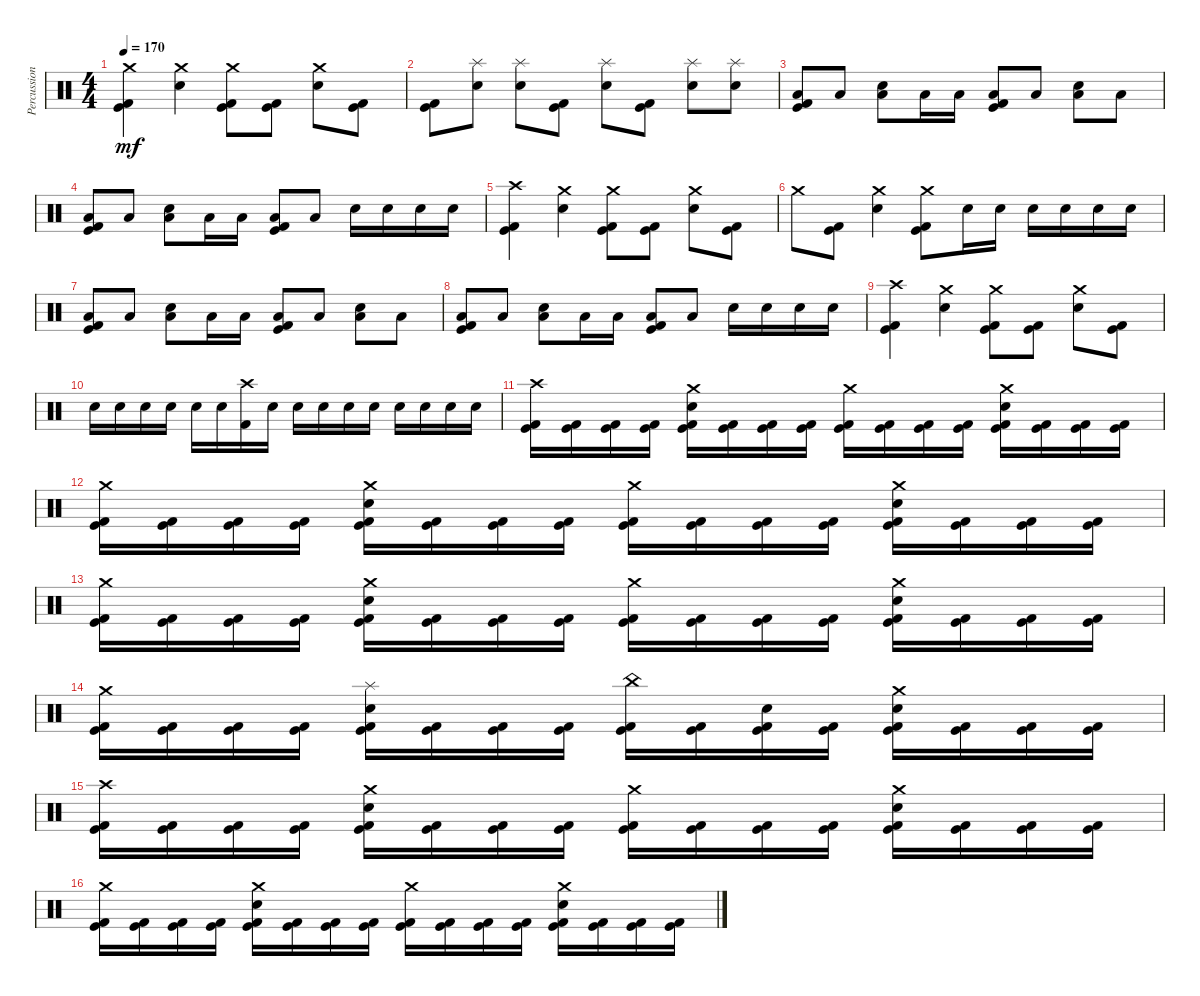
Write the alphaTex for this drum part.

\track ("Percussions" "Percussion") {instrument percussion}
\staff {score}
\articulation defaults
\ts (4 4)
\tempo 170
\clef neutral
\ks c
("Crash medium (hit)" "Kick (hit)" "Kick (hit) 2").4{dy mf} ("Crash medium (hit)" "Electric Snare (hit)").4 ("Crash medium (hit)" "Kick (hit)" "Kick (hit) 2").8 ("Kick (hit)" "Kick (hit) 2").8 ("Crash medium (hit)" "Electric Snare (hit)").8 ("Kick (hit)" "Kick (hit) 2").8 |
("Kick (hit)" "Kick (hit) 2").8 ("Splash (hit)" "Electric Snare (hit)").8 ("Splash (hit)" "Electric Snare (hit)").8 ("Kick (hit)" "Kick (hit) 2").8 ("Splash (hit)" "Electric Snare (hit)").8 ("Kick (hit)" "Kick (hit) 2").8 ("Splash (hit)" "Electric Snare (hit)").8 ("Splash (hit)" "Electric Snare (hit)").8 |
("Low Floor Tom (hit)" "Kick (hit)" "Kick (hit) 2").8 "Low Floor Tom (hit)".8 ("Low Floor Tom (hit)" "Electric Snare (hit)").8 "Low Floor Tom (hit)".16 "Low Floor Tom (hit)".16 ("Low Floor Tom (hit)" "Kick (hit)" "Kick (hit) 2").8 "Low Floor Tom (hit)".8 ("Low Floor Tom (hit)" "Electric Snare (hit)").8 "Low Floor Tom (hit)".8 |
("Low Floor Tom (hit)" "Kick (hit)" "Kick (hit) 2").8 "Low Floor Tom (hit)".8 ("Low Floor Tom (hit)" "Electric Snare (hit)").8 "Low Floor Tom (hit)".16 "Low Floor Tom (hit)".16 ("Low Floor Tom (hit)" "Kick (hit)" "Kick (hit) 2").8 "Low Floor Tom (hit)".8 "Electric Snare (hit)".16 "Electric Snare (hit)".16 "Electric Snare (hit)".16 "Electric Snare (hit)".16 |
("Crash high (hit)" "Kick (hit)" "Kick (hit) 2").4 ("Crash medium (hit)" "Electric Snare (hit)").4 ("Crash medium (hit)" "Kick (hit)" "Kick (hit) 2").8 ("Kick (hit)" "Kick (hit) 2").8 ("Crash medium (hit)" "Electric Snare (hit)").8 ("Kick (hit)" "Kick (hit) 2").8 |
"Crash medium (hit)".8 ("Kick (hit)" "Kick (hit) 2").8 ("Crash medium (hit)" "Electric Snare (hit)").4 ("Crash medium (hit)" "Kick (hit)" "Kick (hit) 2").8 "Electric Snare (hit)".16 "Electric Snare (hit)".16 "Electric Snare (hit)".16 "Electric Snare (hit)".16 "Electric Snare (hit)".16 "Electric Snare (hit)".16 |
("Low Floor Tom (hit)" "Kick (hit)" "Kick (hit) 2").8 "Low Floor Tom (hit)".8 ("Low Floor Tom (hit)" "Electric Snare (hit)").8 "Low Floor Tom (hit)".16 "Low Floor Tom (hit)".16 ("Low Floor Tom (hit)" "Kick (hit)" "Kick (hit) 2").8 "Low Floor Tom (hit)".8 ("Low Floor Tom (hit)" "Electric Snare (hit)").8 "Low Floor Tom (hit)".8 |
("Low Floor Tom (hit)" "Kick (hit)" "Kick (hit) 2").8 "Low Floor Tom (hit)".8 ("Low Floor Tom (hit)" "Electric Snare (hit)").8 "Low Floor Tom (hit)".16 "Low Floor Tom (hit)".16 ("Low Floor Tom (hit)" "Kick (hit)" "Kick (hit) 2").8 "Low Floor Tom (hit)".8 "Electric Snare (hit)".16 "Electric Snare (hit)".16 "Electric Snare (hit)".16 "Electric Snare (hit)".16 |
("Crash high (hit)" "Kick (hit)" "Kick (hit) 2").4 ("Crash medium (hit)" "Electric Snare (hit)").4 ("Crash medium (hit)" "Kick (hit)" "Kick (hit) 2").8 ("Kick (hit)" "Kick (hit) 2").8 ("Crash medium (hit)" "Electric Snare (hit)").8 ("Kick (hit)" "Kick (hit) 2").8 |
"Electric Snare (hit)".16 "Electric Snare (hit)".16 "Electric Snare (hit)".16 "Electric Snare (hit)".16 "Electric Snare (hit)".16 "Electric Snare (hit)".16 ("Crash high (hit)" "Kick (hit) 2").16 "Electric Snare (hit)".16 "Electric Snare (hit)".16 "Electric Snare (hit)".16 "Electric Snare (hit)".16 "Electric Snare (hit)".16 "Electric Snare (hit)".16 "Electric Snare (hit)".16 "Electric Snare (hit)".16 "Electric Snare (hit)".16 |
("Crash high (hit)" "Kick (hit)" "Kick (hit) 2").16 ("Kick (hit)" "Kick (hit) 2").16 ("Kick (hit)" "Kick (hit) 2").16 ("Kick (hit)" "Kick (hit) 2").16 ("Crash medium (hit)" "Electric Snare (hit)" "Kick (hit)" "Kick (hit) 2").16 ("Kick (hit)" "Kick (hit) 2").16 ("Kick (hit)" "Kick (hit) 2").16 ("Kick (hit)" "Kick (hit) 2").16 ("Crash medium (hit)" "Kick (hit)" "Kick (hit) 2").16 ("Kick (hit)" "Kick (hit) 2").16 ("Kick (hit)" "Kick (hit) 2").16 ("Kick (hit)" "Kick (hit) 2").16 ("Crash medium (hit)" "Electric Snare (hit)" "Kick (hit)" "Kick (hit) 2").16 ("Kick (hit)" "Kick (hit) 2").16 ("Kick (hit)" "Kick (hit) 2").16 ("Kick (hit)" "Kick (hit) 2").16 |
("Crash medium (hit)" "Kick (hit)" "Kick (hit) 2").16 ("Kick (hit)" "Kick (hit) 2").16 ("Kick (hit)" "Kick (hit) 2").16 ("Kick (hit)" "Kick (hit) 2").16 ("Crash medium (hit)" "Electric Snare (hit)" "Kick (hit)" "Kick (hit) 2").16 ("Kick (hit)" "Kick (hit) 2").16 ("Kick (hit)" "Kick (hit) 2").16 ("Kick (hit)" "Kick (hit) 2").16 ("Crash medium (hit)" "Kick (hit)" "Kick (hit) 2").16 ("Kick (hit)" "Kick (hit) 2").16 ("Kick (hit)" "Kick (hit) 2").16 ("Kick (hit)" "Kick (hit) 2").16 ("Crash medium (hit)" "Electric Snare (hit)" "Kick (hit)" "Kick (hit) 2").16 ("Kick (hit)" "Kick (hit) 2").16 ("Kick (hit)" "Kick (hit) 2").16 ("Kick (hit)" "Kick (hit) 2").16 |
("Crash medium (hit)" "Kick (hit)" "Kick (hit) 2").16 ("Kick (hit)" "Kick (hit) 2").16 ("Kick (hit)" "Kick (hit) 2").16 ("Kick (hit)" "Kick (hit) 2").16 ("Crash medium (hit)" "Electric Snare (hit)" "Kick (hit)" "Kick (hit) 2").16 ("Kick (hit)" "Kick (hit) 2").16 ("Kick (hit)" "Kick (hit) 2").16 ("Kick (hit)" "Kick (hit) 2").16 ("Crash medium (hit)" "Kick (hit)" "Kick (hit) 2").16 ("Kick (hit)" "Kick (hit) 2").16 ("Kick (hit)" "Kick (hit) 2").16 ("Kick (hit)" "Kick (hit) 2").16 ("Crash medium (hit)" "Electric Snare (hit)" "Kick (hit)" "Kick (hit) 2").16 ("Kick (hit)" "Kick (hit) 2").16 ("Kick (hit)" "Kick (hit) 2").16 ("Kick (hit)" "Kick (hit) 2").16 |
("Crash medium (hit)" "Kick (hit)" "Kick (hit) 2").16 ("Kick (hit)" "Kick (hit) 2").16 ("Kick (hit)" "Kick (hit) 2").16 ("Kick (hit)" "Kick (hit) 2").16 ("Splash (hit)" "Electric Snare (hit)" "Kick (hit)" "Kick (hit) 2").16 ("Kick (hit)" "Kick (hit) 2").16 ("Kick (hit)" "Kick (hit) 2").16 ("Kick (hit)" "Kick (hit) 2").16 ("China (hit)" "Kick (hit)" "Kick (hit) 2").16 ("Kick (hit)" "Kick (hit) 2").16 ("Electric Snare (hit)" "Kick (hit)" "Kick (hit) 2").16 ("Kick (hit)" "Kick (hit) 2").16 ("Crash medium (hit)" "Electric Snare (hit)" "Kick (hit)" "Kick (hit) 2").16 ("Kick (hit)" "Kick (hit) 2").16 ("Kick (hit)" "Kick (hit) 2").16 ("Kick (hit)" "Kick (hit) 2").16 |
("Crash high (hit)" "Kick (hit)" "Kick (hit) 2").16 ("Kick (hit)" "Kick (hit) 2").16 ("Kick (hit)" "Kick (hit) 2").16 ("Kick (hit)" "Kick (hit) 2").16 ("Crash medium (hit)" "Electric Snare (hit)" "Kick (hit)" "Kick (hit) 2").16 ("Kick (hit)" "Kick (hit) 2").16 ("Kick (hit)" "Kick (hit) 2").16 ("Kick (hit)" "Kick (hit) 2").16 ("Crash medium (hit)" "Kick (hit)" "Kick (hit) 2").16 ("Kick (hit)" "Kick (hit) 2").16 ("Kick (hit)" "Kick (hit) 2").16 ("Kick (hit)" "Kick (hit) 2").16 ("Crash medium (hit)" "Electric Snare (hit)" "Kick (hit)" "Kick (hit) 2").16 ("Kick (hit)" "Kick (hit) 2").16 ("Kick (hit)" "Kick (hit) 2").16 ("Kick (hit)" "Kick (hit) 2").16 |
("Crash medium (hit)" "Kick (hit)" "Kick (hit) 2").16 ("Kick (hit)" "Kick (hit) 2").16 ("Kick (hit)" "Kick (hit) 2").16 ("Kick (hit)" "Kick (hit) 2").16 ("Crash medium (hit)" "Electric Snare (hit)" "Kick (hit)" "Kick (hit) 2").16 ("Kick (hit)" "Kick (hit) 2").16 ("Kick (hit)" "Kick (hit) 2").16 ("Kick (hit)" "Kick (hit) 2").16 ("Crash medium (hit)" "Kick (hit)" "Kick (hit) 2").16 ("Kick (hit)" "Kick (hit) 2").16 ("Kick (hit)" "Kick (hit) 2").16 ("Kick (hit)" "Kick (hit) 2").16 ("Crash medium (hit)" "Electric Snare (hit)" "Kick (hit)" "Kick (hit) 2").16 ("Kick (hit)" "Kick (hit) 2").16 ("Kick (hit)" "Kick (hit) 2").16 ("Kick (hit)" "Kick (hit) 2").16
